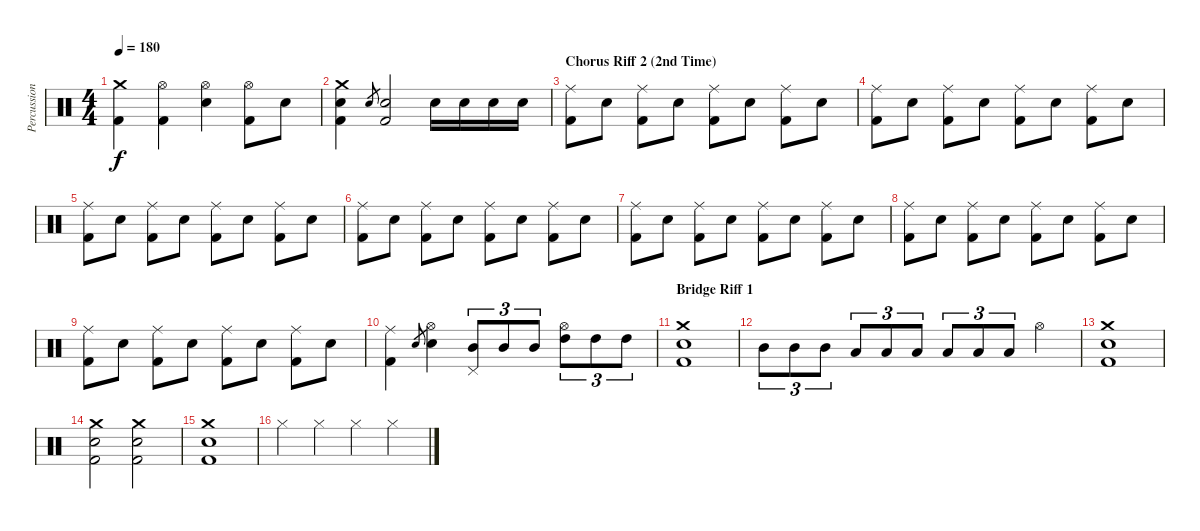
\track ("Percussion" "Percussion") {instrument percussion}
\staff {score}
\articulation defaults
\ts (4 4)
\tempo 180
\clef neutral
\ks c
("Crash medium (hit)" "Kick (hit) 2").4{dy f} ("Hi-Hat (open)" "Kick (hit) 2").4 ("Hi-Hat (open)" "Electric Snare (hit)").4 ("Hi-Hat (open)" "Kick (hit) 2").8 "Electric Snare (hit)".8 |
("Crash medium (hit)" "Electric Snare (hit)" "Kick (hit) 2").4 "Electric Snare (hit)".8{gr} ("Electric Snare (hit)" "Kick (hit) 2").2 "Electric Snare (hit)".16 "Electric Snare (hit)".16 "Electric Snare (hit)".16 "Electric Snare (hit)".16 |
\section ("" "Chorus Riff 2 (2nd Time)")
("Ride (middle)" "Kick (hit) 2").8 "Electric Snare (hit)".8 ("Ride (middle)" "Kick (hit) 2").8 "Electric Snare (hit)".8 ("Ride (middle)" "Kick (hit) 2").8 "Electric Snare (hit)".8 ("Ride (middle)" "Kick (hit) 2").8 "Electric Snare (hit)".8 |
("Ride (middle)" "Kick (hit) 2").8 "Electric Snare (hit)".8 ("Ride (middle)" "Kick (hit) 2").8 "Electric Snare (hit)".8 ("Ride (middle)" "Kick (hit) 2").8 "Electric Snare (hit)".8 ("Ride (middle)" "Kick (hit) 2").8 "Electric Snare (hit)".8 |
("Ride (middle)" "Kick (hit) 2").8 "Electric Snare (hit)".8 ("Ride (middle)" "Kick (hit) 2").8 "Electric Snare (hit)".8 ("Ride (middle)" "Kick (hit) 2").8 "Electric Snare (hit)".8 ("Ride (middle)" "Kick (hit) 2").8 "Electric Snare (hit)".8 |
("Ride (middle)" "Kick (hit) 2").8 "Electric Snare (hit)".8 ("Ride (middle)" "Kick (hit) 2").8 "Electric Snare (hit)".8 ("Ride (middle)" "Kick (hit) 2").8 "Electric Snare (hit)".8 ("Ride (middle)" "Kick (hit) 2").8 "Electric Snare (hit)".8 |
("Ride (middle)" "Kick (hit) 2").8 "Electric Snare (hit)".8 ("Ride (middle)" "Kick (hit) 2").8 "Electric Snare (hit)".8 ("Ride (middle)" "Kick (hit) 2").8 "Electric Snare (hit)".8 ("Ride (middle)" "Kick (hit) 2").8 "Electric Snare (hit)".8 |
("Ride (middle)" "Kick (hit) 2").8 "Electric Snare (hit)".8 ("Ride (middle)" "Kick (hit) 2").8 "Electric Snare (hit)".8 ("Ride (middle)" "Kick (hit) 2").8 "Electric Snare (hit)".8 ("Ride (middle)" "Kick (hit) 2").8 "Electric Snare (hit)".8 |
("Ride (middle)" "Kick (hit) 2").8 "Electric Snare (hit)".8 ("Ride (middle)" "Kick (hit) 2").8 "Electric Snare (hit)".8 ("Ride (middle)" "Kick (hit) 2").8 "Electric Snare (hit)".8 ("Ride (middle)" "Kick (hit) 2").8 "Electric Snare (hit)".8 |
("Ride (middle)" "Kick (hit) 2").4 "Electric Snare (hit)".8{gr} ("Hi-Hat (open)" "Electric Snare (hit)").4 ("Pedal Hi-Hat (hit)" "Mid Tom (hit)").8{tu (3 2)} "Mid Tom (hit)".8{tu (3 2)} "Mid Tom (hit)".8{tu (3 2)} ("Hi-Hat (open)" "High Tom (hit)").8{tu (3 2)} "High Tom (hit)".8{tu (3 2)} "High Tom (hit)".8{tu (3 2)} |
\section ("" "Bridge Riff 1")
("Crash medium (hit)" "Electric Snare (hit)" "Kick (hit) 2").1 |
"Mid Tom (hit)".8{tu (3 2)} "Mid Tom (hit)".8{tu (3 2)} "Mid Tom (hit)".8{tu (3 2)} "Low Tom (hit)".8{tu (3 2)} "Low Tom (hit)".8{tu (3 2)} "Low Tom (hit)".8{tu (3 2)} "Low Floor Tom (hit)".8{tu (3 2)} "Low Floor Tom (hit)".8{tu (3 2)} "Low Floor Tom (hit)".8{tu (3 2)} "Hi-Hat (open)".4 |
("Crash medium (hit)" "Electric Snare (hit)" "Kick (hit) 2").1 |
("Crash medium (hit)" "Electric Snare (hit)" "Kick (hit) 2").2 ("Crash medium (hit)" "Electric Snare (hit)" "Kick (hit) 2").2 |
("Crash medium (hit)" "Electric Snare (hit)" "Kick (hit) 2").1 |
"Hi-Hat (closed)".4 "Hi-Hat (closed)".4 "Hi-Hat (closed)".4 "Hi-Hat (closed)".4
